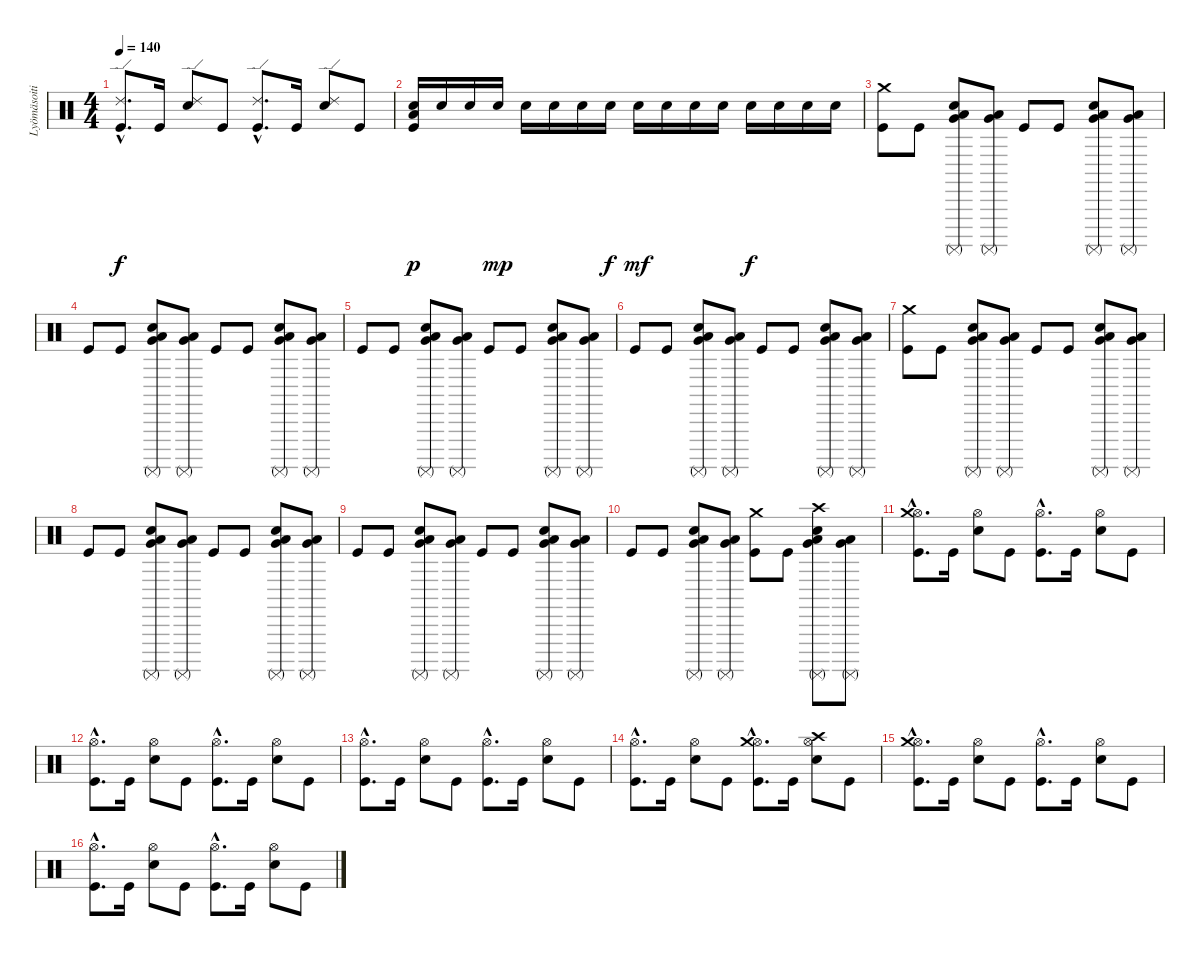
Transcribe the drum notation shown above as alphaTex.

\track ("Lyömäsoitin" "Lyömäsoiti") {instrument percussion}
\staff {score}
\articulation defaults
\ts (4 4)
\tempo 140
\clef neutral
\ks c
("Kick (hit)"{hac} "Ride (edge) 2"{hac}).8{d dy f} "Kick (hit)".16 ("Electric Snare (hit)" "Ride (edge) 2").8 "Kick (hit)".8 ("Kick (hit)"{hac} "Ride (edge) 2"{hac}).8{d} "Kick (hit)".16 ("Electric Snare (hit)" "Ride (edge) 2").8 "Kick (hit)".8 |
("Electric Snare (hit)" "Kick (hit)" "Low Floor Tom (hit)").16{dy p} "Electric Snare (hit)".16 "Electric Snare (hit)".16 "Electric Snare (hit)".16{dy mp} "Electric Snare (hit)".16 "Electric Snare (hit)".16 "Electric Snare (hit)".16 "Electric Snare (hit)".16{dy f} "Electric Snare (hit)".16{dy mf} "Electric Snare (hit)".16 "Electric Snare (hit)".16 "Electric Snare (hit)".16 "Electric Snare (hit)".16{dy f} "Electric Snare (hit)".16 "Electric Snare (hit)".16 "Electric Snare (hit)".16 |
("Kick (hit)" "Crash medium (hit)").8 "Kick (hit)".8 ("Surdo (mute)" "Low Floor Tom (hit)" "Very Low Tom (hit)" "Electric Snare (hit)").8 ("Surdo (mute)" "Low Floor Tom (hit)" "Very Low Tom (hit)").8 "Kick (hit)".8 "Kick (hit)".8 ("Surdo (mute)" "Low Floor Tom (hit)" "Very Low Tom (hit)" "Electric Snare (hit)").8 ("Surdo (mute)" "Low Floor Tom (hit)" "Very Low Tom (hit)").8 |
"Kick (hit)".8 "Kick (hit)".8 ("Surdo (mute)" "Low Floor Tom (hit)" "Very Low Tom (hit)" "Electric Snare (hit)").8 ("Surdo (mute)" "Low Floor Tom (hit)" "Very Low Tom (hit)").8 "Kick (hit)".8 "Kick (hit)".8 ("Surdo (mute)" "Low Floor Tom (hit)" "Very Low Tom (hit)" "Electric Snare (hit)").8 ("Surdo (mute)" "Low Floor Tom (hit)" "Very Low Tom (hit)").8 |
"Kick (hit)".8 "Kick (hit)".8 ("Surdo (mute)" "Low Floor Tom (hit)" "Very Low Tom (hit)" "Electric Snare (hit)").8 ("Surdo (mute)" "Low Floor Tom (hit)" "Very Low Tom (hit)").8 "Kick (hit)".8 "Kick (hit)".8 ("Surdo (mute)" "Low Floor Tom (hit)" "Very Low Tom (hit)" "Electric Snare (hit)").8 ("Surdo (mute)" "Low Floor Tom (hit)" "Very Low Tom (hit)").8 |
"Kick (hit)".8 "Kick (hit)".8 ("Surdo (mute)" "Low Floor Tom (hit)" "Very Low Tom (hit)" "Electric Snare (hit)").8 ("Surdo (mute)" "Low Floor Tom (hit)" "Very Low Tom (hit)").8 "Kick (hit)".8 "Kick (hit)".8 ("Surdo (mute)" "Low Floor Tom (hit)" "Very Low Tom (hit)" "Electric Snare (hit)").8 ("Surdo (mute)" "Low Floor Tom (hit)" "Very Low Tom (hit)").8 |
("Kick (hit)" "Crash medium (hit)").8 "Kick (hit)".8 ("Surdo (mute)" "Low Floor Tom (hit)" "Very Low Tom (hit)" "Electric Snare (hit)").8 ("Surdo (mute)" "Low Floor Tom (hit)" "Very Low Tom (hit)").8 "Kick (hit)".8 "Kick (hit)".8 ("Surdo (mute)" "Low Floor Tom (hit)" "Very Low Tom (hit)" "Electric Snare (hit)").8 ("Surdo (mute)" "Low Floor Tom (hit)" "Very Low Tom (hit)").8 |
"Kick (hit)".8 "Kick (hit)".8 ("Surdo (mute)" "Low Floor Tom (hit)" "Very Low Tom (hit)" "Electric Snare (hit)").8 ("Surdo (mute)" "Low Floor Tom (hit)" "Very Low Tom (hit)").8 "Kick (hit)".8 "Kick (hit)".8 ("Surdo (mute)" "Low Floor Tom (hit)" "Very Low Tom (hit)" "Electric Snare (hit)").8 ("Surdo (mute)" "Low Floor Tom (hit)" "Very Low Tom (hit)").8 |
"Kick (hit)".8 "Kick (hit)".8 ("Surdo (mute)" "Low Floor Tom (hit)" "Very Low Tom (hit)" "Electric Snare (hit)").8 ("Surdo (mute)" "Low Floor Tom (hit)" "Very Low Tom (hit)").8 "Kick (hit)".8 "Kick (hit)".8 ("Surdo (mute)" "Low Floor Tom (hit)" "Very Low Tom (hit)" "Electric Snare (hit)").8 ("Surdo (mute)" "Low Floor Tom (hit)" "Very Low Tom (hit)").8 |
"Kick (hit)".8 "Kick (hit)".8 ("Surdo (mute)" "Low Floor Tom (hit)" "Very Low Tom (hit)" "Electric Snare (hit)").8 ("Surdo (mute)" "Low Floor Tom (hit)" "Very Low Tom (hit)").8 ("Kick (hit)" "Crash medium (hit)").8 "Kick (hit)".8 ("Surdo (mute)" "Low Floor Tom (hit)" "Very Low Tom (hit)" "Electric Snare (hit)" "Crash high (hit)").8 ("Surdo (mute)" "Low Floor Tom (hit)" "Very Low Tom (hit)").8 |
("Kick (hit)"{hac} "Hi-Hat (open)"{hac} "Crash medium (hit)"{hac}).8{d} "Kick (hit)".16 ("Electric Snare (hit)" "Hi-Hat (open)").8 "Kick (hit)".8 ("Kick (hit)"{hac} "Hi-Hat (open)"{hac}).8{d} "Kick (hit)".16 ("Electric Snare (hit)" "Hi-Hat (open)").8 "Kick (hit)".8 |
("Kick (hit)"{hac} "Hi-Hat (open)"{hac}).8{d} "Kick (hit)".16 ("Electric Snare (hit)" "Hi-Hat (open)").8 "Kick (hit)".8 ("Kick (hit)"{hac} "Hi-Hat (open)"{hac}).8{d} "Kick (hit)".16 ("Electric Snare (hit)" "Hi-Hat (open)").8 "Kick (hit)".8 |
("Kick (hit)"{hac} "Hi-Hat (open)"{hac}).8{d} "Kick (hit)".16 ("Electric Snare (hit)" "Hi-Hat (open)").8 "Kick (hit)".8 ("Kick (hit)"{hac} "Hi-Hat (open)"{hac}).8{d} "Kick (hit)".16 ("Electric Snare (hit)" "Hi-Hat (open)").8 "Kick (hit)".8 |
("Kick (hit)"{hac} "Hi-Hat (open)"{hac}).8{d} "Kick (hit)".16 ("Electric Snare (hit)" "Hi-Hat (open)").8 "Kick (hit)".8 ("Kick (hit)"{hac} "Hi-Hat (open)"{hac} "Crash medium (hit)"{hac}).8{d} "Kick (hit)".16 ("Electric Snare (hit)" "Hi-Hat (open)" "Crash high (hit)").8 "Kick (hit)".8 |
("Kick (hit)"{hac} "Hi-Hat (open)"{hac} "Crash medium (hit)"{hac}).8{d} "Kick (hit)".16 ("Electric Snare (hit)" "Hi-Hat (open)").8 "Kick (hit)".8 ("Kick (hit)"{hac} "Hi-Hat (open)"{hac}).8{d} "Kick (hit)".16 ("Electric Snare (hit)" "Hi-Hat (open)").8 "Kick (hit)".8 |
("Kick (hit)"{hac} "Hi-Hat (open)"{hac}).8{d} "Kick (hit)".16 ("Electric Snare (hit)" "Hi-Hat (open)").8 "Kick (hit)".8 ("Kick (hit)"{hac} "Hi-Hat (open)"{hac}).8{d} "Kick (hit)".16 ("Electric Snare (hit)" "Hi-Hat (open)").8 "Kick (hit)".8
